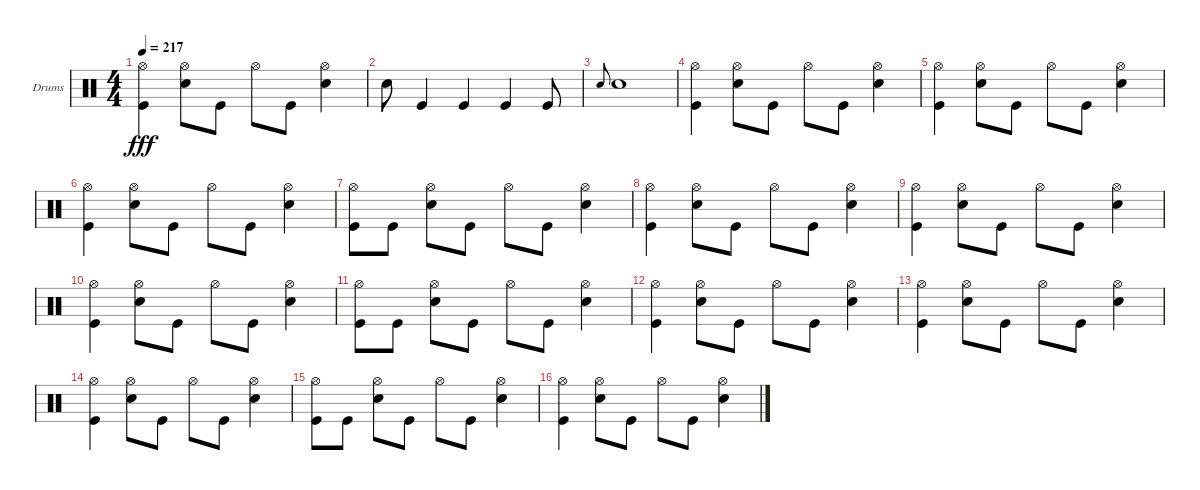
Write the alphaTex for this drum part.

\bracketExtendMode groupsimilarinstruments
\firstSystemTrackNameOrientation horizontal
\otherSystemsTrackNameOrientation horizontal
\track ("Drumkit" "Drums") {instrument percussion}
\staff {score}
\articulation defaults
\ts (4 4)
\tempo 217
\clef neutral
\ks c
("Kick (hit)" "Hi-Hat (open)").4{dy fff} ("Hi-Hat (open)" "Snare (hit) 2").8 "Kick (hit)".8 "Hi-Hat (open)".8 "Kick (hit)".8 ("Snare (hit) 2" "Hi-Hat (open)").4 |
"Snare (hit) 2".8 "Kick (hit)".4 "Kick (hit)".4 "Kick (hit)".4 "Kick (hit)".8 |
"Snare (hit) 2".8{gr onbeat} "Snare (hit) 2".1 |
("Kick (hit)" "Hi-Hat (open)").4 ("Hi-Hat (open)" "Snare (hit) 2").8 "Kick (hit)".8 "Hi-Hat (open)".8 "Kick (hit)".8 ("Snare (hit) 2" "Hi-Hat (open)").4 |
("Kick (hit)" "Hi-Hat (open)").4 ("Hi-Hat (open)" "Snare (hit) 2").8 "Kick (hit)".8 "Hi-Hat (open)".8 "Kick (hit)".8 ("Snare (hit) 2" "Hi-Hat (open)").4 |
("Kick (hit)" "Hi-Hat (open)").4 ("Hi-Hat (open)" "Snare (hit) 2").8 "Kick (hit)".8 "Hi-Hat (open)".8 "Kick (hit)".8 ("Snare (hit) 2" "Hi-Hat (open)").4 |
("Kick (hit)" "Hi-Hat (open)").8 "Kick (hit)".8 ("Snare (hit) 2" "Hi-Hat (open)").8 "Kick (hit)".8 "Hi-Hat (open)".8 "Kick (hit)".8 ("Snare (hit) 2" "Hi-Hat (open)").4 |
("Kick (hit)" "Hi-Hat (open)").4 ("Hi-Hat (open)" "Snare (hit) 2").8 "Kick (hit)".8 "Hi-Hat (open)".8 "Kick (hit)".8 ("Snare (hit) 2" "Hi-Hat (open)").4 |
("Kick (hit)" "Hi-Hat (open)").4 ("Hi-Hat (open)" "Snare (hit) 2").8 "Kick (hit)".8 "Hi-Hat (open)".8 "Kick (hit)".8 ("Snare (hit) 2" "Hi-Hat (open)").4 |
("Kick (hit)" "Hi-Hat (open)").4 ("Hi-Hat (open)" "Snare (hit) 2").8 "Kick (hit)".8 "Hi-Hat (open)".8 "Kick (hit)".8 ("Snare (hit) 2" "Hi-Hat (open)").4 |
("Kick (hit)" "Hi-Hat (open)").8 "Kick (hit)".8 ("Snare (hit) 2" "Hi-Hat (open)").8 "Kick (hit)".8 "Hi-Hat (open)".8 "Kick (hit)".8 ("Snare (hit) 2" "Hi-Hat (open)").4 |
("Kick (hit)" "Hi-Hat (open)").4 ("Hi-Hat (open)" "Snare (hit) 2").8 "Kick (hit)".8 "Hi-Hat (open)".8 "Kick (hit)".8 ("Snare (hit) 2" "Hi-Hat (open)").4 |
("Kick (hit)" "Hi-Hat (open)").4 ("Hi-Hat (open)" "Snare (hit) 2").8 "Kick (hit)".8 "Hi-Hat (open)".8 "Kick (hit)".8 ("Snare (hit) 2" "Hi-Hat (open)").4 |
("Kick (hit)" "Hi-Hat (open)").4 ("Hi-Hat (open)" "Snare (hit) 2").8 "Kick (hit)".8 "Hi-Hat (open)".8 "Kick (hit)".8 ("Snare (hit) 2" "Hi-Hat (open)").4 |
("Kick (hit)" "Hi-Hat (open)").8 "Kick (hit)".8 ("Snare (hit) 2" "Hi-Hat (open)").8 "Kick (hit)".8 "Hi-Hat (open)".8 "Kick (hit)".8 ("Snare (hit) 2" "Hi-Hat (open)").4 |
("Kick (hit)" "Hi-Hat (open)").4 ("Hi-Hat (open)" "Snare (hit) 2").8 "Kick (hit)".8 "Hi-Hat (open)".8 "Kick (hit)".8 ("Snare (hit) 2" "Hi-Hat (open)").4
